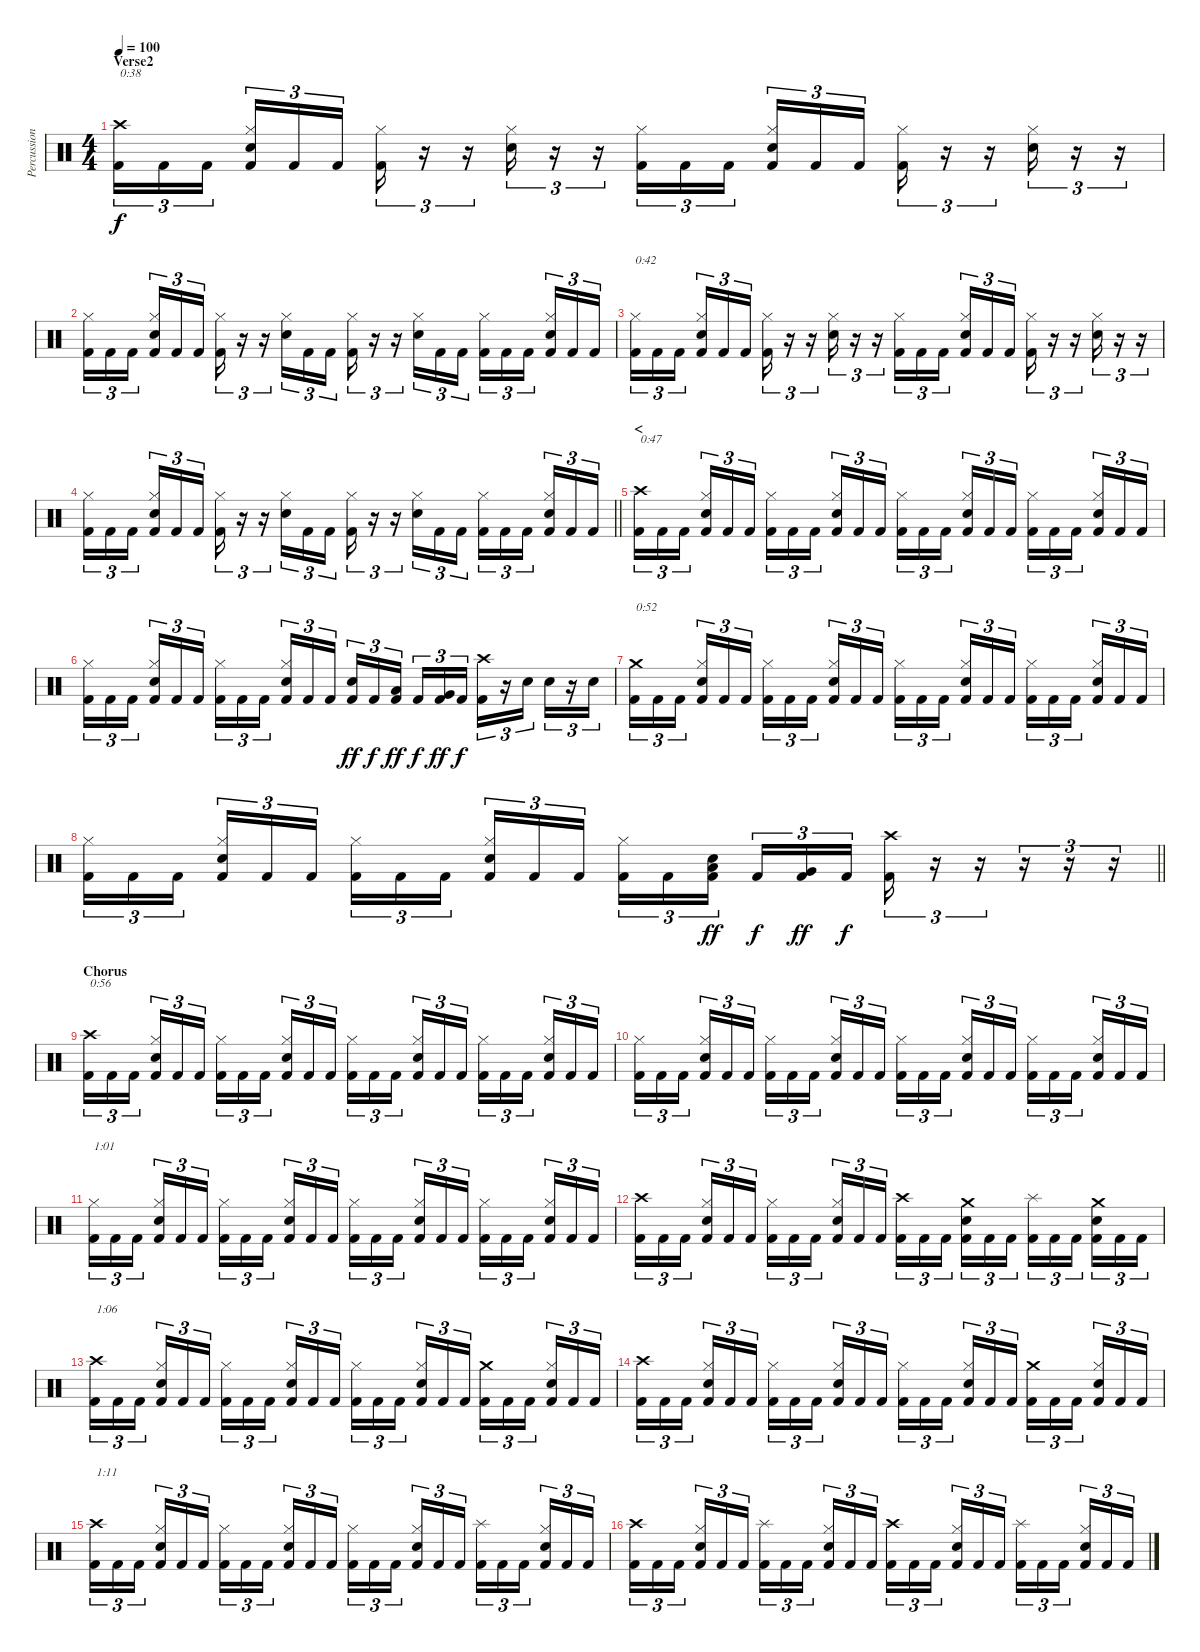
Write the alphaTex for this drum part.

\track ("Percussion" "Percussion") {instrument percussion}
\staff {score}
\articulation defaults
\ts (4 4)
\section ("" "Verse2")
\tempo 100
\clef neutral
\ks c
("Crash high (hit)" "Kick (hit) 2").16{tu (3 2) txt "0:38" dy f} "Kick (hit) 2".16{tu (3 2)} "Kick (hit) 2".16{tu (3 2) beam splitsecondary} ("Hi-Hat (closed)" "Snare (hit) 2" "Kick (hit) 2").16{tu (3 2)} "Kick (hit) 2".16{tu (3 2)} "Kick (hit) 2".16{tu (3 2)} ("Hi-Hat (closed)" "Kick (hit) 2").16{tu (3 2)} r.16{tu (3 2)} r.16{tu (3 2)} ("Hi-Hat (closed)" "Snare (hit) 2").16{tu (3 2)} r.16{tu (3 2)} r.16{tu (3 2)} ("Hi-Hat (closed)" "Kick (hit) 2").16{tu (3 2)} "Kick (hit) 2".16{tu (3 2)} "Kick (hit) 2".16{tu (3 2) beam splitsecondary} ("Hi-Hat (closed)" "Snare (hit) 2" "Kick (hit) 2").16{tu (3 2)} "Kick (hit) 2".16{tu (3 2)} "Kick (hit) 2".16{tu (3 2)} ("Hi-Hat (closed)" "Kick (hit) 2").16{tu (3 2)} r.16{tu (3 2)} r.16{tu (3 2)} ("Hi-Hat (closed)" "Snare (hit) 2").16{tu (3 2)} r.16{tu (3 2)} r.16{tu (3 2)} |
("Hi-Hat (closed)" "Kick (hit) 2").16{tu (3 2)} "Kick (hit) 2".16{tu (3 2)} "Kick (hit) 2".16{tu (3 2) beam splitsecondary} ("Hi-Hat (closed)" "Snare (hit) 2" "Kick (hit) 2").16{tu (3 2)} "Kick (hit) 2".16{tu (3 2)} "Kick (hit) 2".16{tu (3 2)} ("Hi-Hat (closed)" "Kick (hit) 2").16{tu (3 2)} r.16{tu (3 2)} r.16{tu (3 2)} ("Hi-Hat (closed)" "Snare (hit) 2").16{tu (3 2)} "Kick (hit) 2".16{tu (3 2)} "Kick (hit) 2".16{tu (3 2)} ("Hi-Hat (closed)" "Kick (hit) 2").16{tu (3 2)} r.16{tu (3 2)} r.16{tu (3 2)} ("Hi-Hat (closed)" "Snare (hit) 2").16{tu (3 2)} "Kick (hit) 2".16{tu (3 2)} "Kick (hit) 2".16{tu (3 2)} ("Hi-Hat (closed)" "Kick (hit) 2").16{tu (3 2)} "Kick (hit) 2".16{tu (3 2)} "Kick (hit) 2".16{tu (3 2) beam splitsecondary} ("Hi-Hat (closed)" "Snare (hit) 2" "Kick (hit) 2").16{tu (3 2)} "Kick (hit) 2".16{tu (3 2)} "Kick (hit) 2".16{tu (3 2)} |
("Hi-Hat (closed)" "Kick (hit) 2").16{tu (3 2) txt "0:42"} "Kick (hit) 2".16{tu (3 2)} "Kick (hit) 2".16{tu (3 2) beam splitsecondary} ("Hi-Hat (closed)" "Snare (hit) 2" "Kick (hit) 2").16{tu (3 2)} "Kick (hit) 2".16{tu (3 2)} "Kick (hit) 2".16{tu (3 2)} ("Hi-Hat (closed)" "Kick (hit) 2").16{tu (3 2)} r.16{tu (3 2)} r.16{tu (3 2)} ("Hi-Hat (closed)" "Snare (hit) 2").16{tu (3 2)} r.16{tu (3 2)} r.16{tu (3 2)} ("Hi-Hat (closed)" "Kick (hit) 2").16{tu (3 2)} "Kick (hit) 2".16{tu (3 2)} "Kick (hit) 2".16{tu (3 2) beam splitsecondary} ("Hi-Hat (closed)" "Snare (hit) 2" "Kick (hit) 2").16{tu (3 2)} "Kick (hit) 2".16{tu (3 2)} "Kick (hit) 2".16{tu (3 2)} ("Hi-Hat (closed)" "Kick (hit) 2").16{tu (3 2)} r.16{tu (3 2)} r.16{tu (3 2)} ("Hi-Hat (closed)" "Snare (hit) 2").16{tu (3 2)} r.16{tu (3 2)} r.16{tu (3 2)} |
\barLineRight lightlight
("Hi-Hat (closed)" "Kick (hit) 2").16{tu (3 2)} "Kick (hit) 2".16{tu (3 2)} "Kick (hit) 2".16{tu (3 2) beam splitsecondary} ("Hi-Hat (closed)" "Snare (hit) 2" "Kick (hit) 2").16{tu (3 2)} "Kick (hit) 2".16{tu (3 2)} "Kick (hit) 2".16{tu (3 2)} ("Hi-Hat (closed)" "Kick (hit) 2").16{tu (3 2)} r.16{tu (3 2)} r.16{tu (3 2)} ("Hi-Hat (closed)" "Snare (hit) 2").16{tu (3 2)} "Kick (hit) 2".16{tu (3 2)} "Kick (hit) 2".16{tu (3 2)} ("Hi-Hat (closed)" "Kick (hit) 2").16{tu (3 2)} r.16{tu (3 2)} r.16{tu (3 2)} ("Hi-Hat (closed)" "Snare (hit) 2").16{tu (3 2)} "Kick (hit) 2".16{tu (3 2)} "Kick (hit) 2".16{tu (3 2)} ("Hi-Hat (closed)" "Kick (hit) 2").16{tu (3 2)} "Kick (hit) 2".16{tu (3 2)} "Kick (hit) 2".16{tu (3 2) beam splitsecondary} ("Hi-Hat (closed)" "Snare (hit) 2" "Kick (hit) 2").16{tu (3 2)} "Kick (hit) 2".16{tu (3 2)} "Kick (hit) 2".16{tu (3 2)} |
\section ("" "<")
("Crash high (hit)" "Kick (hit) 2").16{tu (3 2) txt "0:47"} "Kick (hit) 2".16{tu (3 2)} "Kick (hit) 2".16{tu (3 2) beam splitsecondary} ("Hi-Hat (closed)" "Snare (hit) 2" "Kick (hit) 2").16{tu (3 2)} "Kick (hit) 2".16{tu (3 2)} "Kick (hit) 2".16{tu (3 2)} ("Hi-Hat (closed)" "Kick (hit) 2").16{tu (3 2)} "Kick (hit) 2".16{tu (3 2)} "Kick (hit) 2".16{tu (3 2) beam splitsecondary} ("Hi-Hat (closed)" "Snare (hit) 2" "Kick (hit) 2").16{tu (3 2)} "Kick (hit) 2".16{tu (3 2)} "Kick (hit) 2".16{tu (3 2)} ("Hi-Hat (closed)" "Kick (hit) 2").16{tu (3 2)} "Kick (hit) 2".16{tu (3 2)} "Kick (hit) 2".16{tu (3 2) beam splitsecondary} ("Hi-Hat (closed)" "Snare (hit) 2" "Kick (hit) 2").16{tu (3 2)} "Kick (hit) 2".16{tu (3 2)} "Kick (hit) 2".16{tu (3 2)} ("Hi-Hat (closed)" "Kick (hit) 2").16{tu (3 2)} "Kick (hit) 2".16{tu (3 2)} "Kick (hit) 2".16{tu (3 2) beam splitsecondary} ("Hi-Hat (closed)" "Snare (hit) 2" "Kick (hit) 2").16{tu (3 2)} "Kick (hit) 2".16{tu (3 2)} "Kick (hit) 2".16{tu (3 2)} |
("Hi-Hat (closed)" "Kick (hit) 2").16{tu (3 2)} "Kick (hit) 2".16{tu (3 2)} "Kick (hit) 2".16{tu (3 2) beam splitsecondary} ("Hi-Hat (closed)" "Snare (hit) 2" "Kick (hit) 2").16{tu (3 2)} "Kick (hit) 2".16{tu (3 2)} "Kick (hit) 2".16{tu (3 2)} ("Hi-Hat (closed)" "Kick (hit) 2").16{tu (3 2)} "Kick (hit) 2".16{tu (3 2)} "Kick (hit) 2".16{tu (3 2) beam splitsecondary} ("Hi-Hat (closed)" "Snare (hit) 2" "Kick (hit) 2").16{tu (3 2)} "Kick (hit) 2".16{tu (3 2)} "Kick (hit) 2".16{tu (3 2)} ("Snare (hit) 2" "Kick (hit) 2").16{tu (3 2) dy ff} "Kick (hit) 2".16{tu (3 2) dy f} ("Low Tom (hit)" "Kick (hit) 2").16{tu (3 2) dy ff beam splitsecondary} "Kick (hit) 2".16{tu (3 2) dy f} ("Very Low Tom (hit)" "Kick (hit) 2").16{tu (3 2) dy ff} "Kick (hit) 2".16{tu (3 2) dy f} ("Crash high (hit)" "Kick (hit) 2").16{tu (3 2)} r.16{tu (3 2)} "Snare (hit) 2".16{tu (3 2)} "Snare (hit) 2".16{tu (3 2)} r.16{tu (3 2)} "Snare (hit) 2".16{tu (3 2)} |
("Crash medium (hit)" "Kick (hit) 2").16{tu (3 2) txt "0:52"} "Kick (hit) 2".16{tu (3 2)} "Kick (hit) 2".16{tu (3 2) beam splitsecondary} ("Hi-Hat (closed)" "Snare (hit) 2" "Kick (hit) 2").16{tu (3 2)} "Kick (hit) 2".16{tu (3 2)} "Kick (hit) 2".16{tu (3 2)} ("Hi-Hat (closed)" "Kick (hit) 2").16{tu (3 2)} "Kick (hit) 2".16{tu (3 2)} "Kick (hit) 2".16{tu (3 2) beam splitsecondary} ("Hi-Hat (closed)" "Snare (hit) 2" "Kick (hit) 2").16{tu (3 2)} "Kick (hit) 2".16{tu (3 2)} "Kick (hit) 2".16{tu (3 2)} ("Hi-Hat (closed)" "Kick (hit) 2").16{tu (3 2)} "Kick (hit) 2".16{tu (3 2)} "Kick (hit) 2".16{tu (3 2) beam splitsecondary} ("Hi-Hat (closed)" "Snare (hit) 2" "Kick (hit) 2").16{tu (3 2)} "Kick (hit) 2".16{tu (3 2)} "Kick (hit) 2".16{tu (3 2)} ("Hi-Hat (closed)" "Kick (hit) 2").16{tu (3 2)} "Kick (hit) 2".16{tu (3 2)} "Kick (hit) 2".16{tu (3 2) beam splitsecondary} ("Hi-Hat (closed)" "Snare (hit) 2" "Kick (hit) 2").16{tu (3 2)} "Kick (hit) 2".16{tu (3 2)} "Kick (hit) 2".16{tu (3 2)} |
\barLineRight lightlight
("Hi-Hat (closed)" "Kick (hit) 2").16{tu (3 2)} "Kick (hit) 2".16{tu (3 2)} "Kick (hit) 2".16{tu (3 2) beam splitsecondary} ("Hi-Hat (closed)" "Snare (hit) 2" "Kick (hit) 2").16{tu (3 2)} "Kick (hit) 2".16{tu (3 2)} "Kick (hit) 2".16{tu (3 2)} ("Hi-Hat (closed)" "Kick (hit) 2").16{tu (3 2)} "Kick (hit) 2".16{tu (3 2)} "Kick (hit) 2".16{tu (3 2) beam splitsecondary} ("Hi-Hat (closed)" "Snare (hit) 2" "Kick (hit) 2").16{tu (3 2)} "Kick (hit) 2".16{tu (3 2)} "Kick (hit) 2".16{tu (3 2)} ("Hi-Hat (closed)" "Kick (hit) 2").16{tu (3 2)} "Kick (hit) 2".16{tu (3 2)} ("Low Tom (hit)" "Snare (hit) 2" "Kick (hit) 2").16{tu (3 2) dy ff beam splitsecondary} "Kick (hit) 2".16{tu (3 2) dy f} ("Very Low Tom (hit)" "Kick (hit) 2").16{tu (3 2) dy ff} "Kick (hit) 2".16{tu (3 2) dy f} ("Crash high (hit)" "Kick (hit) 2").16{tu (3 2)} r.16{tu (3 2)} r.16{tu (3 2)} r.16{tu (3 2)} r.16{tu (3 2)} r.16{tu (3 2)} |
\section ("" "Chorus")
("Crash high (hit)" "Kick (hit) 2").16{tu (3 2) txt "0:56"} "Kick (hit) 2".16{tu (3 2)} "Kick (hit) 2".16{tu (3 2) beam splitsecondary} ("Hi-Hat (closed)" "Snare (hit) 2" "Kick (hit) 2").16{tu (3 2)} "Kick (hit) 2".16{tu (3 2)} "Kick (hit) 2".16{tu (3 2)} ("Hi-Hat (closed)" "Kick (hit) 2").16{tu (3 2)} "Kick (hit) 2".16{tu (3 2)} "Kick (hit) 2".16{tu (3 2) beam splitsecondary} ("Hi-Hat (closed)" "Snare (hit) 2" "Kick (hit) 2").16{tu (3 2)} "Kick (hit) 2".16{tu (3 2)} "Kick (hit) 2".16{tu (3 2)} ("Hi-Hat (closed)" "Kick (hit) 2").16{tu (3 2)} "Kick (hit) 2".16{tu (3 2)} "Kick (hit) 2".16{tu (3 2) beam splitsecondary} ("Hi-Hat (closed)" "Snare (hit) 2" "Kick (hit) 2").16{tu (3 2)} "Kick (hit) 2".16{tu (3 2)} "Kick (hit) 2".16{tu (3 2)} ("Hi-Hat (closed)" "Kick (hit) 2").16{tu (3 2)} "Kick (hit) 2".16{tu (3 2)} "Kick (hit) 2".16{tu (3 2) beam splitsecondary} ("Hi-Hat (closed)" "Snare (hit) 2" "Kick (hit) 2").16{tu (3 2)} "Kick (hit) 2".16{tu (3 2)} "Kick (hit) 2".16{tu (3 2)} |
("Hi-Hat (closed)" "Kick (hit) 2").16{tu (3 2)} "Kick (hit) 2".16{tu (3 2)} "Kick (hit) 2".16{tu (3 2) beam splitsecondary} ("Hi-Hat (closed)" "Snare (hit) 2" "Kick (hit) 2").16{tu (3 2)} "Kick (hit) 2".16{tu (3 2)} "Kick (hit) 2".16{tu (3 2)} ("Hi-Hat (closed)" "Kick (hit) 2").16{tu (3 2)} "Kick (hit) 2".16{tu (3 2)} "Kick (hit) 2".16{tu (3 2) beam splitsecondary} ("Hi-Hat (closed)" "Snare (hit) 2" "Kick (hit) 2").16{tu (3 2)} "Kick (hit) 2".16{tu (3 2)} "Kick (hit) 2".16{tu (3 2)} ("Hi-Hat (closed)" "Kick (hit) 2").16{tu (3 2)} "Kick (hit) 2".16{tu (3 2)} "Kick (hit) 2".16{tu (3 2) beam splitsecondary} ("Hi-Hat (closed)" "Snare (hit) 2" "Kick (hit) 2").16{tu (3 2)} "Kick (hit) 2".16{tu (3 2)} "Kick (hit) 2".16{tu (3 2)} ("Hi-Hat (closed)" "Kick (hit) 2").16{tu (3 2)} "Kick (hit) 2".16{tu (3 2)} "Kick (hit) 2".16{tu (3 2) beam splitsecondary} ("Hi-Hat (closed)" "Snare (hit) 2" "Kick (hit) 2").16{tu (3 2)} "Kick (hit) 2".16{tu (3 2)} "Kick (hit) 2".16{tu (3 2)} |
("Hi-Hat (closed)" "Kick (hit) 2").16{tu (3 2) txt "1:01"} "Kick (hit) 2".16{tu (3 2)} "Kick (hit) 2".16{tu (3 2) beam splitsecondary} ("Hi-Hat (closed)" "Snare (hit) 2" "Kick (hit) 2").16{tu (3 2)} "Kick (hit) 2".16{tu (3 2)} "Kick (hit) 2".16{tu (3 2)} ("Hi-Hat (closed)" "Kick (hit) 2").16{tu (3 2)} "Kick (hit) 2".16{tu (3 2)} "Kick (hit) 2".16{tu (3 2) beam splitsecondary} ("Hi-Hat (closed)" "Snare (hit) 2" "Kick (hit) 2").16{tu (3 2)} "Kick (hit) 2".16{tu (3 2)} "Kick (hit) 2".16{tu (3 2)} ("Hi-Hat (closed)" "Kick (hit) 2").16{tu (3 2)} "Kick (hit) 2".16{tu (3 2)} "Kick (hit) 2".16{tu (3 2) beam splitsecondary} ("Hi-Hat (closed)" "Snare (hit) 2" "Kick (hit) 2").16{tu (3 2)} "Kick (hit) 2".16{tu (3 2)} "Kick (hit) 2".16{tu (3 2)} ("Hi-Hat (closed)" "Kick (hit) 2").16{tu (3 2)} "Kick (hit) 2".16{tu (3 2)} "Kick (hit) 2".16{tu (3 2) beam splitsecondary} ("Hi-Hat (closed)" "Snare (hit) 2" "Kick (hit) 2").16{tu (3 2)} "Kick (hit) 2".16{tu (3 2)} "Kick (hit) 2".16{tu (3 2)} |
("Crash high (hit)" "Kick (hit) 2").16{tu (3 2)} "Kick (hit) 2".16{tu (3 2)} "Kick (hit) 2".16{tu (3 2) beam splitsecondary} ("Hi-Hat (closed)" "Snare (hit) 2" "Kick (hit) 2").16{tu (3 2)} "Kick (hit) 2".16{tu (3 2)} "Kick (hit) 2".16{tu (3 2)} ("Hi-Hat (closed)" "Kick (hit) 2").16{tu (3 2)} "Kick (hit) 2".16{tu (3 2)} "Kick (hit) 2".16{tu (3 2) beam splitsecondary} ("Hi-Hat (closed)" "Snare (hit) 2" "Kick (hit) 2").16{tu (3 2)} "Kick (hit) 2".16{tu (3 2)} "Kick (hit) 2".16{tu (3 2)} ("Crash high (hit)" "Kick (hit) 2").16{tu (3 2)} "Kick (hit) 2".16{tu (3 2)} "Kick (hit) 2".16{tu (3 2) beam splitsecondary} ("Crash medium (hit)" "Snare (hit) 2" "Kick (hit) 2").16{tu (3 2)} "Kick (hit) 2".16{tu (3 2)} "Kick (hit) 2".16{tu (3 2)} ("Splash (hit)" "Kick (hit) 2").16{tu (3 2)} "Kick (hit) 2".16{tu (3 2)} "Kick (hit) 2".16{tu (3 2) beam splitsecondary} ("Crash medium (hit)" "Snare (hit) 2" "Kick (hit) 2").16{tu (3 2)} "Kick (hit) 2".16{tu (3 2)} "Kick (hit) 2".16{tu (3 2)} |
("Crash high (hit)" "Kick (hit) 2").16{tu (3 2) txt "1:06"} "Kick (hit) 2".16{tu (3 2)} "Kick (hit) 2".16{tu (3 2) beam splitsecondary} ("Hi-Hat (closed)" "Snare (hit) 2" "Kick (hit) 2").16{tu (3 2)} "Kick (hit) 2".16{tu (3 2)} "Kick (hit) 2".16{tu (3 2)} ("Hi-Hat (closed)" "Kick (hit) 2").16{tu (3 2)} "Kick (hit) 2".16{tu (3 2)} "Kick (hit) 2".16{tu (3 2) beam splitsecondary} ("Hi-Hat (closed)" "Snare (hit) 2" "Kick (hit) 2").16{tu (3 2)} "Kick (hit) 2".16{tu (3 2)} "Kick (hit) 2".16{tu (3 2)} ("Hi-Hat (closed)" "Kick (hit) 2").16{tu (3 2)} "Kick (hit) 2".16{tu (3 2)} "Kick (hit) 2".16{tu (3 2) beam splitsecondary} ("Hi-Hat (closed)" "Snare (hit) 2" "Kick (hit) 2").16{tu (3 2)} "Kick (hit) 2".16{tu (3 2)} "Kick (hit) 2".16{tu (3 2)} ("Crash medium (hit)" "Kick (hit) 2").16{tu (3 2)} "Kick (hit) 2".16{tu (3 2)} "Kick (hit) 2".16{tu (3 2) beam splitsecondary} ("Hi-Hat (closed)" "Snare (hit) 2" "Kick (hit) 2").16{tu (3 2)} "Kick (hit) 2".16{tu (3 2)} "Kick (hit) 2".16{tu (3 2)} |
("Crash high (hit)" "Kick (hit) 2").16{tu (3 2)} "Kick (hit) 2".16{tu (3 2)} "Kick (hit) 2".16{tu (3 2) beam splitsecondary} ("Hi-Hat (closed)" "Snare (hit) 2" "Kick (hit) 2").16{tu (3 2)} "Kick (hit) 2".16{tu (3 2)} "Kick (hit) 2".16{tu (3 2)} ("Hi-Hat (closed)" "Kick (hit) 2").16{tu (3 2)} "Kick (hit) 2".16{tu (3 2)} "Kick (hit) 2".16{tu (3 2) beam splitsecondary} ("Hi-Hat (closed)" "Snare (hit) 2" "Kick (hit) 2").16{tu (3 2)} "Kick (hit) 2".16{tu (3 2)} "Kick (hit) 2".16{tu (3 2)} ("Hi-Hat (closed)" "Kick (hit) 2").16{tu (3 2)} "Kick (hit) 2".16{tu (3 2)} "Kick (hit) 2".16{tu (3 2) beam splitsecondary} ("Hi-Hat (closed)" "Snare (hit) 2" "Kick (hit) 2").16{tu (3 2)} "Kick (hit) 2".16{tu (3 2)} "Kick (hit) 2".16{tu (3 2)} ("Crash medium (hit)" "Kick (hit) 2").16{tu (3 2)} "Kick (hit) 2".16{tu (3 2)} "Kick (hit) 2".16{tu (3 2) beam splitsecondary} ("Hi-Hat (closed)" "Snare (hit) 2" "Kick (hit) 2").16{tu (3 2)} "Kick (hit) 2".16{tu (3 2)} "Kick (hit) 2".16{tu (3 2)} |
("Crash high (hit)" "Kick (hit) 2").16{tu (3 2) txt "1:11"} "Kick (hit) 2".16{tu (3 2)} "Kick (hit) 2".16{tu (3 2) beam splitsecondary} ("Hi-Hat (closed)" "Snare (hit) 2" "Kick (hit) 2").16{tu (3 2)} "Kick (hit) 2".16{tu (3 2)} "Kick (hit) 2".16{tu (3 2)} ("Hi-Hat (closed)" "Kick (hit) 2").16{tu (3 2)} "Kick (hit) 2".16{tu (3 2)} "Kick (hit) 2".16{tu (3 2) beam splitsecondary} ("Hi-Hat (closed)" "Snare (hit) 2" "Kick (hit) 2").16{tu (3 2)} "Kick (hit) 2".16{tu (3 2)} "Kick (hit) 2".16{tu (3 2)} ("Hi-Hat (closed)" "Kick (hit) 2").16{tu (3 2)} "Kick (hit) 2".16{tu (3 2)} "Kick (hit) 2".16{tu (3 2) beam splitsecondary} ("Hi-Hat (closed)" "Snare (hit) 2" "Kick (hit) 2").16{tu (3 2)} "Kick (hit) 2".16{tu (3 2)} "Kick (hit) 2".16{tu (3 2)} ("Splash (hit)" "Kick (hit) 2").16{tu (3 2)} "Kick (hit) 2".16{tu (3 2)} "Kick (hit) 2".16{tu (3 2) beam splitsecondary} ("Hi-Hat (closed)" "Snare (hit) 2" "Kick (hit) 2").16{tu (3 2)} "Kick (hit) 2".16{tu (3 2)} "Kick (hit) 2".16{tu (3 2)} |
("Crash high (hit)" "Kick (hit) 2").16{tu (3 2)} "Kick (hit) 2".16{tu (3 2)} "Kick (hit) 2".16{tu (3 2) beam splitsecondary} ("Hi-Hat (closed)" "Snare (hit) 2" "Kick (hit) 2").16{tu (3 2)} "Kick (hit) 2".16{tu (3 2)} "Kick (hit) 2".16{tu (3 2)} ("Splash (hit)" "Kick (hit) 2").16{tu (3 2)} "Kick (hit) 2".16{tu (3 2)} "Kick (hit) 2".16{tu (3 2) beam splitsecondary} ("Hi-Hat (closed)" "Snare (hit) 2" "Kick (hit) 2").16{tu (3 2)} "Kick (hit) 2".16{tu (3 2)} "Kick (hit) 2".16{tu (3 2)} ("Crash high (hit)" "Kick (hit) 2").16{tu (3 2)} "Kick (hit) 2".16{tu (3 2)} "Kick (hit) 2".16{tu (3 2) beam splitsecondary} ("Hi-Hat (closed)" "Snare (hit) 2" "Kick (hit) 2").16{tu (3 2)} "Kick (hit) 2".16{tu (3 2)} "Kick (hit) 2".16{tu (3 2)} ("Splash (hit)" "Kick (hit) 2").16{tu (3 2)} "Kick (hit) 2".16{tu (3 2)} "Kick (hit) 2".16{tu (3 2) beam splitsecondary} ("Hi-Hat (closed)" "Snare (hit) 2" "Kick (hit) 2").16{tu (3 2)} "Kick (hit) 2".16{tu (3 2)} "Kick (hit) 2".16{tu (3 2)}
